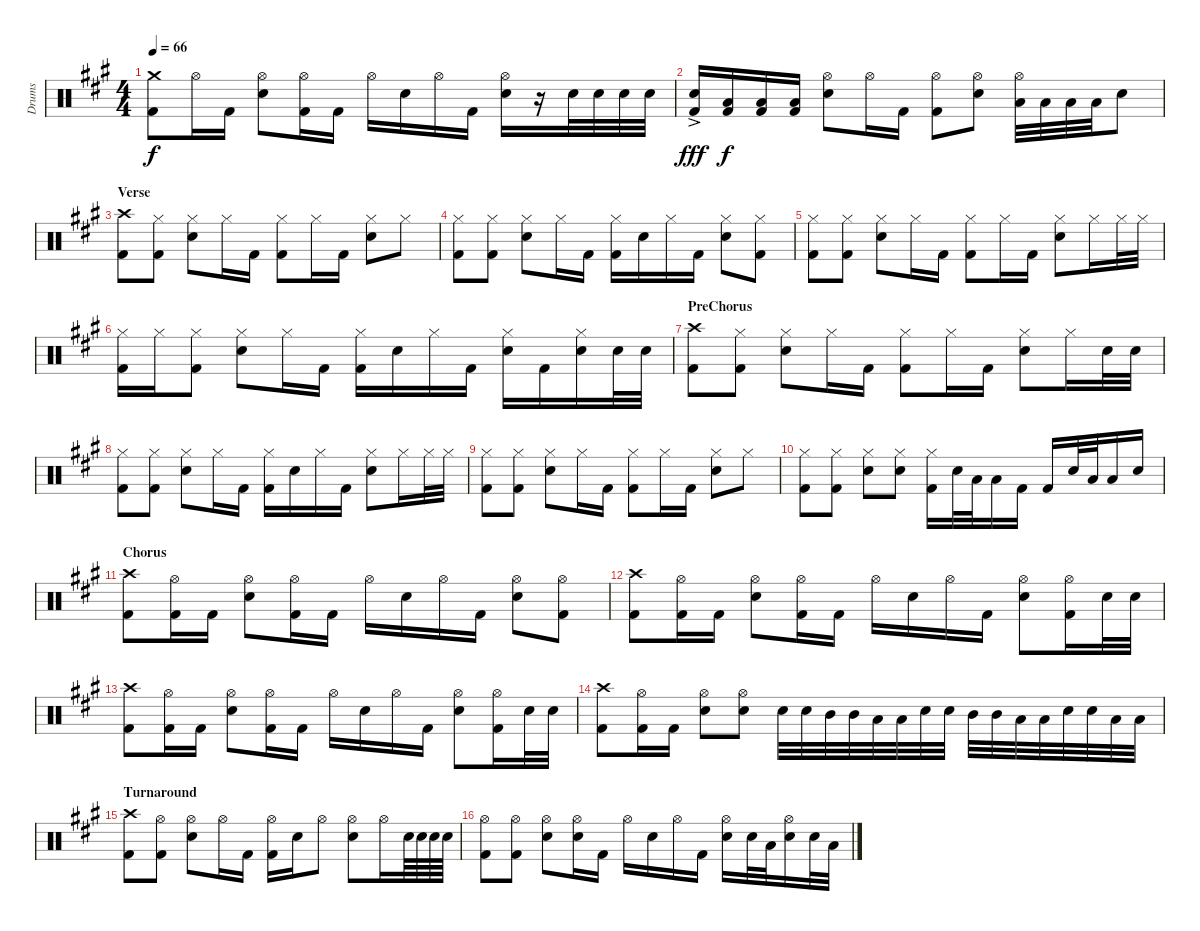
\track ("Drums" "Drums") {instrument percussion}
\staff {score}
\articulation defaults
\ts (4 4)
\tempo 66
\clef neutral
\ks a
("Crash medium (hit)" "Kick (hit) 2").8{dy f} "Hi-Hat (open)".16 "Kick (hit) 2".16 ("Hi-Hat (open)" "Snare (hit) 2").8 ("Hi-Hat (open)" "Kick (hit) 2").16 "Kick (hit) 2".16 "Hi-Hat (open)".16 "Snare (hit) 2".16 "Hi-Hat (open)".16 "Kick (hit) 2".16 ("Hi-Hat (open)" "Snare (hit) 2").16 r.16 "Snare (hit) 2".32 "Snare (hit) 2".32 "Snare (hit) 2".32 "Snare (hit) 2".32 |
("Snare (hit) 2"{ac} "Kick (hit) 2").16{dy fff} ("Low Floor Tom (hit)" "Kick (hit) 2").16{dy f} ("Low Floor Tom (hit)" "Kick (hit) 2").16 ("Low Floor Tom (hit)" "Kick (hit) 2").16 ("Hi-Hat (open)" "Snare (hit) 2").8 "Hi-Hat (open)".16 "Kick (hit) 2".16 ("Hi-Hat (open)" "Kick (hit) 2").8 ("Hi-Hat (open)" "Snare (hit) 2").8 ("Hi-Hat (open)" "Low Floor Tom (hit)").32 "Low Floor Tom (hit)".32 "Low Floor Tom (hit)".32 "Low Floor Tom (hit)".32 "Snare (hit) 2".8 |
\section ("" "Verse")
("Crash high (hit)" "Kick (hit) 2").8 ("Hi-Hat (closed)" "Kick (hit) 2").8 ("Hi-Hat (closed)" "Snare (hit) 2").8 "Hi-Hat (closed)".16 "Kick (hit) 2".16 ("Hi-Hat (closed)" "Kick (hit) 2").8 "Hi-Hat (closed)".16 "Kick (hit) 2".16 ("Hi-Hat (closed)" "Snare (hit) 2").8 "Hi-Hat (closed)".8 |
("Hi-Hat (closed)" "Kick (hit) 2").8 ("Hi-Hat (closed)" "Kick (hit) 2").8 ("Hi-Hat (closed)" "Snare (hit) 2").8 "Hi-Hat (closed)".16 "Kick (hit) 2".16 ("Hi-Hat (closed)" "Kick (hit) 2").16 "Snare (hit) 2".16 "Hi-Hat (closed)".16 "Kick (hit) 2".16 ("Hi-Hat (closed)" "Snare (hit) 2").8 ("Hi-Hat (closed)" "Kick (hit) 2").8 |
("Hi-Hat (closed)" "Kick (hit) 2").8 ("Hi-Hat (closed)" "Kick (hit) 2").8 ("Hi-Hat (closed)" "Snare (hit) 2").8 "Hi-Hat (closed)".16 "Kick (hit) 2".16 ("Hi-Hat (closed)" "Kick (hit) 2").8 "Hi-Hat (closed)".16 "Kick (hit) 2".16 ("Hi-Hat (closed)" "Snare (hit) 2").8 "Hi-Hat (closed)".16 "Hi-Hat (closed)".32 "Hi-Hat (closed)".32 |
("Hi-Hat (closed)" "Kick (hit) 2").16 "Hi-Hat (closed)".16 ("Hi-Hat (closed)" "Kick (hit) 2").8 ("Hi-Hat (closed)" "Snare (hit) 2").8 "Hi-Hat (closed)".16 "Kick (hit) 2".16 ("Hi-Hat (closed)" "Kick (hit) 2").16 "Snare (hit) 2".16 "Hi-Hat (closed)".16 "Kick (hit) 2".16 ("Hi-Hat (closed)" "Snare (hit) 2").16 "Kick (hit) 2".16 ("Hi-Hat (closed)" "Snare (hit) 2").16 "Snare (hit) 2".32 "Snare (hit) 2".32 |
\section ("" "PreChorus")
("Crash high (hit)" "Kick (hit) 2").8 ("Hi-Hat (closed)" "Kick (hit) 2").8 ("Hi-Hat (closed)" "Snare (hit) 2").8 "Hi-Hat (closed)".16 "Kick (hit) 2".16 ("Hi-Hat (closed)" "Kick (hit) 2").8 "Hi-Hat (closed)".16 "Kick (hit) 2".16 ("Hi-Hat (closed)" "Snare (hit) 2").8 "Hi-Hat (closed)".16 "Snare (hit) 2".32 "Snare (hit) 2".32 |
("Hi-Hat (closed)" "Kick (hit) 2").8 ("Hi-Hat (closed)" "Kick (hit) 2").8 ("Hi-Hat (closed)" "Snare (hit) 2").8 "Hi-Hat (closed)".16 "Kick (hit) 2".16 ("Hi-Hat (closed)" "Kick (hit) 2").16 "Snare (hit) 2".16 "Hi-Hat (closed)".16 "Kick (hit) 2".16 ("Hi-Hat (closed)" "Snare (hit) 2").8 "Hi-Hat (closed)".16 "Hi-Hat (closed)".32 "Hi-Hat (closed)".32 |
("Hi-Hat (closed)" "Kick (hit) 2").8 ("Hi-Hat (closed)" "Kick (hit) 2").8 ("Hi-Hat (closed)" "Snare (hit) 2").8 "Hi-Hat (closed)".16 "Kick (hit) 2".16 ("Hi-Hat (closed)" "Kick (hit) 2").8 "Hi-Hat (closed)".16 "Kick (hit) 2".16 ("Hi-Hat (closed)" "Snare (hit) 2").8 "Hi-Hat (closed)".8 |
("Hi-Hat (closed)" "Kick (hit) 2").8 ("Hi-Hat (closed)" "Kick (hit) 2").8 ("Hi-Hat (closed)" "Snare (hit) 2").8 ("Hi-Hat (closed)" "Snare (hit) 2").8 ("Hi-Hat (closed)" "Kick (hit) 2").16 "Snare (hit) 2".32 "Low Tom (hit)".32 "Low Floor Tom (hit)".16 "Kick (hit) 2".16 "Kick (hit) 2".16 "Snare (hit) 2".32 "Low Tom (hit)".32 "Low Floor Tom (hit)".16 "Snare (hit) 2".16 |
\section ("" "Chorus")
("Crash high (hit)" "Kick (hit) 2").8 ("Hi-Hat (open)" "Kick (hit) 2").16 "Kick (hit) 2".16 ("Hi-Hat (open)" "Snare (hit) 2").8 ("Hi-Hat (open)" "Kick (hit) 2").16 "Kick (hit) 2".16 "Hi-Hat (open)".16 "Snare (hit) 2".16 "Hi-Hat (open)".16 "Kick (hit) 2".16 ("Hi-Hat (open)" "Snare (hit) 2").8 ("Hi-Hat (open)" "Kick (hit) 2").8 |
("Crash high (hit)" "Kick (hit) 2").8 ("Hi-Hat (open)" "Kick (hit) 2").16 "Kick (hit) 2".16 ("Hi-Hat (open)" "Snare (hit) 2").8 ("Hi-Hat (open)" "Kick (hit) 2").16 "Kick (hit) 2".16 "Hi-Hat (open)".16 "Snare (hit) 2".16 "Hi-Hat (open)".16 "Kick (hit) 2".16 ("Hi-Hat (open)" "Snare (hit) 2").8 ("Hi-Hat (open)" "Kick (hit) 2").16 "Snare (hit) 2".32 "Snare (hit) 2".32 |
("Crash high (hit)" "Kick (hit) 2").8 ("Hi-Hat (open)" "Kick (hit) 2").16 "Kick (hit) 2".16 ("Hi-Hat (open)" "Snare (hit) 2").8 ("Hi-Hat (open)" "Kick (hit) 2").16 "Kick (hit) 2".16 "Hi-Hat (open)".16 "Snare (hit) 2".16 "Hi-Hat (open)".16 "Kick (hit) 2".16 ("Hi-Hat (open)" "Snare (hit) 2").8 ("Hi-Hat (open)" "Kick (hit) 2").16 "Snare (hit) 2".32 "Snare (hit) 2".32 |
("Crash high (hit)" "Kick (hit) 2").8 ("Hi-Hat (open)" "Kick (hit) 2").16 "Kick (hit) 2".16 ("Hi-Hat (open)" "Snare (hit) 2").8 ("Hi-Hat (open)" "Snare (hit) 2").8 "Snare (hit) 2".32 "Snare (hit) 2".32 "Mid Tom (hit)".32 "Mid Tom (hit)".32 "Low Tom (hit)".32 "Low Floor Tom (hit)".32 "Snare (hit) 2".32 "Snare (hit) 2".32 "Mid Tom (hit)".32 "Mid Tom (hit)".32 "Low Tom (hit)".32 "Low Floor Tom (hit)".32 "Snare (hit) 2".32 "Snare (hit) 2".32 "Low Tom (hit)".32 "Low Floor Tom (hit)".32 |
\section ("" "Turnaround")
("Crash high (hit)" "Kick (hit) 2").8 ("Hi-Hat (open)" "Kick (hit) 2").8 ("Hi-Hat (open)" "Snare (hit) 2").8 "Hi-Hat (open)".16 "Kick (hit) 2".16 ("Hi-Hat (open)" "Kick (hit) 2").16 "Snare (hit) 2".16 "Hi-Hat (open)".8 ("Hi-Hat (open)" "Snare (hit) 2").8 "Hi-Hat (open)".16 "Snare (hit) 2".64 "Snare (hit) 2".64 "Snare (hit) 2".64 "Snare (hit) 2".64 |
("Hi-Hat (open)" "Kick (hit) 2").8 ("Hi-Hat (open)" "Kick (hit) 2").8 ("Hi-Hat (open)" "Snare (hit) 2").8 ("Hi-Hat (open)" "Snare (hit) 2").16 "Kick (hit) 2".16 "Hi-Hat (open)".16 "Snare (hit) 2".16 "Hi-Hat (open)".16 "Kick (hit) 2".16 ("Hi-Hat (open)" "Snare (hit) 2").16 "Snare (hit) 2".32 "Low Tom (hit)".32 ("Hi-Hat (open)" "Snare (hit) 2").16 "Snare (hit) 2".32 "Low Tom (hit)".32
